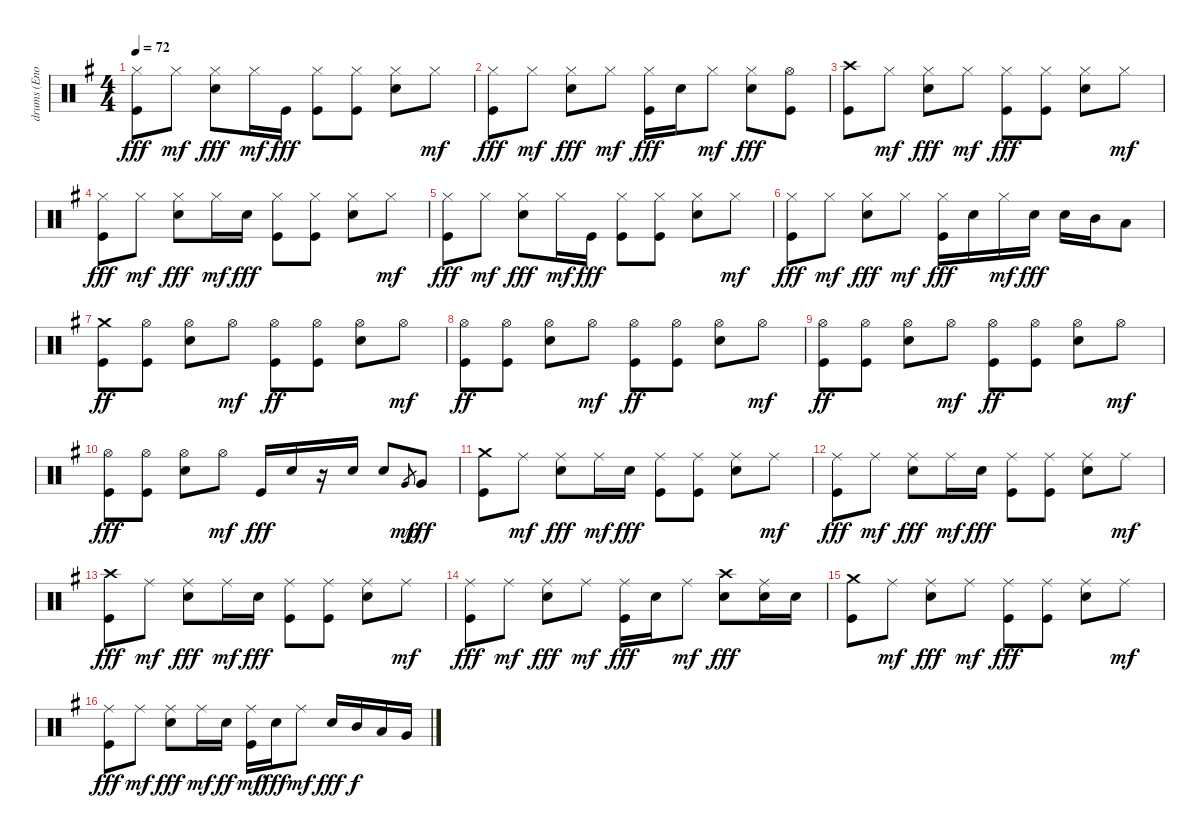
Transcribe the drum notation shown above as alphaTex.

\track ("drums (Enoch)" "drums (Eno") {instrument percussion}
\staff {score}
\articulation defaults
\ts (4 4)
\tempo 72
\clef neutral
\ks g
("Hi-Hat (closed)" "Kick (hit)").8{dy fff} "Hi-Hat (closed)".8{dy mf} ("Hi-Hat (closed)" "Snare (hit) 2").8{dy fff} "Hi-Hat (closed)".16{dy mf} "Kick (hit)".16{dy fff} ("Hi-Hat (closed)" "Kick (hit)").8 ("Hi-Hat (closed)" "Kick (hit)").8 ("Hi-Hat (closed)" "Snare (hit) 2").8 "Hi-Hat (closed)".8{dy mf} |
("Hi-Hat (closed)" "Kick (hit)").8{dy fff} "Hi-Hat (closed)".8{dy mf} ("Hi-Hat (closed)" "Snare (hit) 2").8{dy fff} "Hi-Hat (closed)".8{dy mf} ("Hi-Hat (closed)" "Kick (hit)").16{dy fff} "Snare (hit) 2".16 "Hi-Hat (closed)".8{dy mf} ("Hi-Hat (closed)" "Snare (hit) 2").8{dy fff} ("Hi-Hat (open)" "Kick (hit)").8 |
("Crash high (hit)" "Kick (hit)").8 "Hi-Hat (closed)".8{dy mf} ("Hi-Hat (closed)" "Snare (hit) 2").8{dy fff} "Hi-Hat (closed)".8{dy mf} ("Hi-Hat (closed)" "Kick (hit)").8{dy fff} ("Hi-Hat (closed)" "Kick (hit)").8 ("Hi-Hat (closed)" "Snare (hit) 2").8 "Hi-Hat (closed)".8{dy mf} |
("Hi-Hat (closed)" "Kick (hit)").8{dy fff} "Hi-Hat (closed)".8{dy mf} ("Hi-Hat (closed)" "Snare (hit) 2").8{dy fff} "Hi-Hat (closed)".16{dy mf} "Snare (hit) 2".16{dy fff} ("Hi-Hat (closed)" "Kick (hit)").8 ("Hi-Hat (closed)" "Kick (hit)").8 ("Hi-Hat (closed)" "Snare (hit) 2").8 "Hi-Hat (closed)".8{dy mf} |
("Hi-Hat (closed)" "Kick (hit)").8{dy fff} "Hi-Hat (closed)".8{dy mf} ("Hi-Hat (closed)" "Snare (hit) 2").8{dy fff} "Hi-Hat (closed)".16{dy mf} "Kick (hit)".16{dy fff} ("Hi-Hat (closed)" "Kick (hit)").8 ("Hi-Hat (closed)" "Kick (hit)").8 ("Hi-Hat (closed)" "Snare (hit) 2").8 "Hi-Hat (closed)".8{dy mf} |
("Hi-Hat (closed)" "Kick (hit)").8{dy fff} "Hi-Hat (closed)".8{dy mf} ("Hi-Hat (closed)" "Snare (hit) 2").8{dy fff} "Hi-Hat (closed)".8{dy mf} ("Hi-Hat (closed)" "Kick (hit)").16{dy fff} "Snare (hit) 2".16 "Hi-Hat (closed)".16{dy mf} "Snare (hit) 2".16{dy fff} "Snare (hit) 2".16 "Mid Tom (hit)".16 "Low Tom (hit)".8 |
("Crash medium (hit)" "Kick (hit)").8{dy ff} ("Hi-Hat (open)" "Kick (hit)").8 ("Hi-Hat (open)" "Snare (hit) 2").8 "Hi-Hat (open)".8{dy mf} ("Hi-Hat (open)" "Kick (hit)").8{dy ff} ("Hi-Hat (open)" "Kick (hit)").8 ("Hi-Hat (open)" "Snare (hit) 2").8 "Hi-Hat (open)".8{dy mf} |
("Hi-Hat (open)" "Kick (hit)").8{dy ff} ("Hi-Hat (open)" "Kick (hit)").8 ("Hi-Hat (open)" "Snare (hit) 2").8 "Hi-Hat (open)".8{dy mf} ("Hi-Hat (open)" "Kick (hit)").8{dy ff} ("Hi-Hat (open)" "Kick (hit)").8 ("Hi-Hat (open)" "Snare (hit) 2").8 "Hi-Hat (open)".8{dy mf} |
("Hi-Hat (open)" "Kick (hit)").8{dy ff} ("Hi-Hat (open)" "Kick (hit)").8 ("Hi-Hat (open)" "Snare (hit) 2").8 "Hi-Hat (open)".8{dy mf} ("Hi-Hat (open)" "Kick (hit)").8{dy ff} ("Hi-Hat (open)" "Kick (hit)").8 ("Hi-Hat (open)" "Snare (hit) 2").8 "Hi-Hat (open)".8{dy mf} |
("Hi-Hat (open)" "Kick (hit)").8{dy fff} ("Hi-Hat (open)" "Kick (hit)").8 ("Hi-Hat (open)" "Snare (hit) 2").8 "Hi-Hat (open)".8{dy mf} "Kick (hit)".16{dy fff} "Snare (hit) 2".16 r.16 "Snare (hit) 2".16 "Snare (hit) 2".8 "Very Low Tom (hit)".8{gr dy mp} "Very Low Tom (hit)".8{dy fff} |
("Crash medium (hit)" "Kick (hit)").8 "Ride (middle)".8{dy mf} ("Ride (middle)" "Snare (hit) 2").8{dy fff} "Ride (middle)".16{dy mf} "Snare (hit) 2".16{dy fff} ("Ride (middle)" "Kick (hit)").8 ("Ride (middle)" "Kick (hit)").8 ("Ride (middle)" "Snare (hit) 2").8 "Ride (middle)".8{dy mf} |
("Ride (middle)" "Kick (hit)").8{dy fff} "Ride (middle)".8{dy mf} ("Ride (middle)" "Snare (hit) 2").8{dy fff} "Ride (middle)".16{dy mf} "Snare (hit) 2".16{dy fff} ("Ride (middle)" "Kick (hit)").8 ("Ride (middle)" "Kick (hit)").8 ("Ride (middle)" "Snare (hit) 2").8 "Ride (middle)".8{dy mf} |
("Crash high (hit)" "Kick (hit)").8{dy fff} "Ride (middle)".8{dy mf} ("Ride (middle)" "Snare (hit) 2").8{dy fff} "Ride (middle)".16{dy mf} "Snare (hit) 2".16{dy fff} ("Ride (middle)" "Kick (hit)").8 ("Ride (middle)" "Kick (hit)").8 ("Ride (middle)" "Snare (hit) 2").8 "Ride (middle)".8{dy mf} |
("Ride (middle)" "Kick (hit)").8{dy fff} "Ride (middle)".8{dy mf} ("Ride (middle)" "Snare (hit) 2").8{dy fff} "Ride (middle)".8{dy mf} ("Ride (middle)" "Kick (hit)").16{dy fff} "Snare (hit) 2".16 "Ride (middle)".8{dy mf} ("Crash high (hit)" "Snare (hit) 2").8{dy fff} ("Ride (middle)" "Snare (hit) 2").16 "Snare (hit) 2".16 |
("Crash medium (hit)" "Kick (hit)").8 "Ride (middle)".8{dy mf} ("Ride (middle)" "Snare (hit) 2").8{dy fff} "Ride (middle)".8{dy mf} ("Ride (middle)" "Kick (hit)").8{dy fff} ("Ride (middle)" "Kick (hit)").8 ("Ride (middle)" "Snare (hit) 2").8 "Ride (middle)".8{dy mf} |
("Ride (middle)" "Kick (hit)").8{dy fff} "Ride (middle)".8{dy mf} ("Ride (middle)" "Snare (hit) 2").8{dy fff} "Ride (middle)".16{dy mf} "Snare (hit) 2".16{dy ff} ("Ride (middle)" "Kick (hit)").16{dy mf} "Snare (hit) 2".16{dy fff} "Ride (middle)".8{dy mf} "Snare (hit) 2".16{dy fff} "Mid Tom (hit)".16{dy f} "Low Tom (hit)".16 "Very Low Tom (hit)".16
